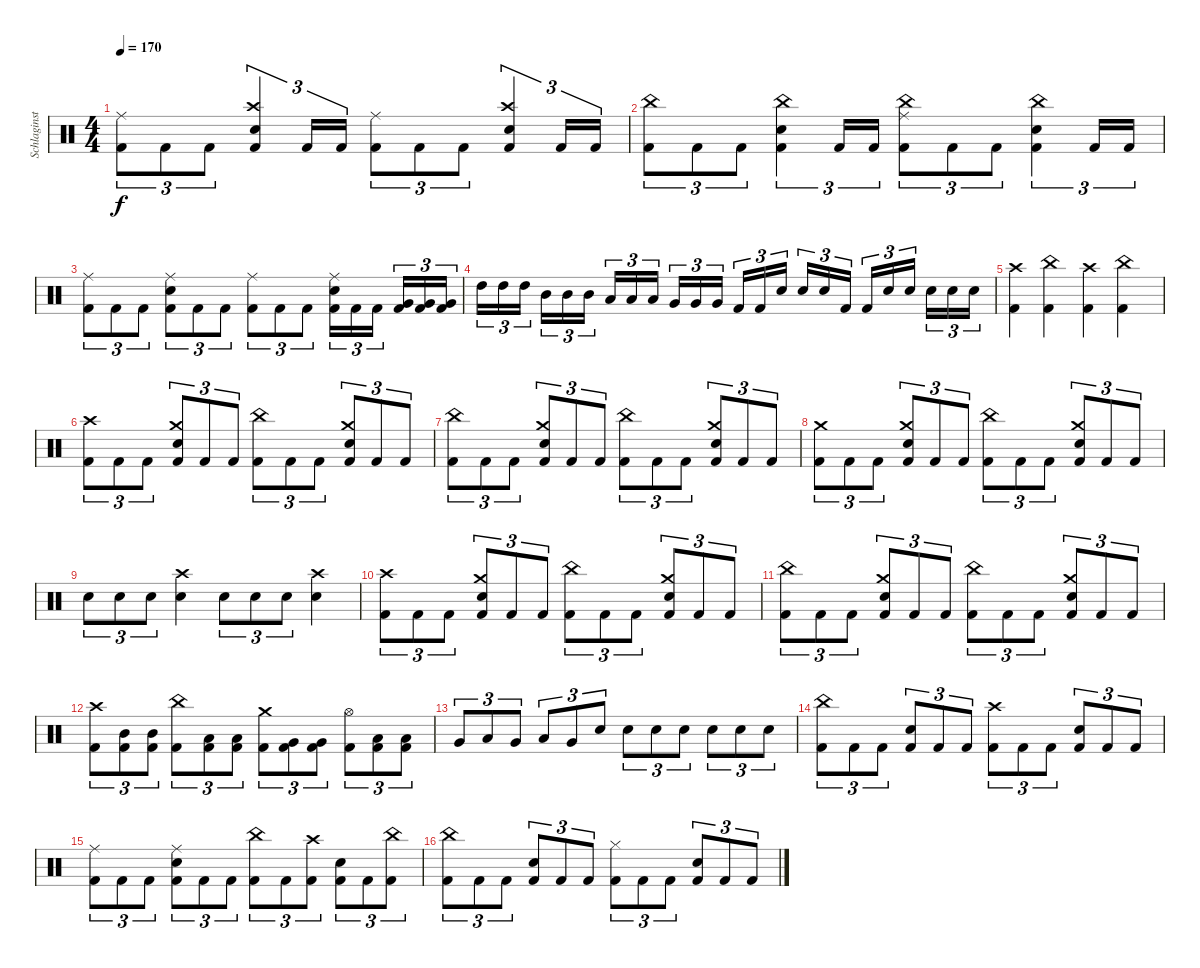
\track ("Schlaginstrumente - Auswahl" "Schlaginst") {instrument percussion}
\staff {score}
\articulation defaults
\ts (4 4)
\tempo 170
\clef neutral
\ks c
("Ride (middle)" "Kick (hit) 2").8{tu (3 2) dy f} "Kick (hit) 2".8{tu (3 2)} "Kick (hit) 2".8{tu (3 2)} ("Crash high (hit)" "Snare (hit) 2" "Kick (hit) 2").4{tu (3 2)} "Kick (hit) 2".16{tu (3 2)} "Kick (hit) 2".16{tu (3 2)} ("Ride (middle)" "Kick (hit) 2").8{tu (3 2)} "Kick (hit) 2".8{tu (3 2)} "Kick (hit) 2".8{tu (3 2)} ("Crash high (hit)" "Snare (hit) 2" "Kick (hit) 2").4{tu (3 2)} "Kick (hit) 2".16{tu (3 2)} "Kick (hit) 2".16{tu (3 2)} |
("China (hit)" "Kick (hit) 2").8{tu (3 2)} "Kick (hit) 2".8{tu (3 2)} "Kick (hit) 2".8{tu (3 2)} ("China (hit)" "Snare (hit) 2" "Kick (hit) 2").4{tu (3 2)} "Kick (hit) 2".16{tu (3 2)} "Kick (hit) 2".16{tu (3 2)} ("China (hit)" "Ride (middle)" "Kick (hit) 2").8{tu (3 2)} "Kick (hit) 2".8{tu (3 2)} "Kick (hit) 2".8{tu (3 2)} ("China (hit)" "Snare (hit) 2" "Kick (hit) 2").4{tu (3 2)} "Kick (hit) 2".16{tu (3 2)} "Kick (hit) 2".16{tu (3 2)} |
("Ride (middle)" "Kick (hit) 2").8{tu (3 2)} "Kick (hit) 2".8{tu (3 2)} "Kick (hit) 2".8{tu (3 2)} ("Ride (middle)" "Snare (hit) 2" "Kick (hit) 2").8{tu (3 2)} "Kick (hit) 2".8{tu (3 2)} "Kick (hit) 2".8{tu (3 2)} ("Ride (middle)" "Kick (hit) 2").8{tu (3 2)} "Kick (hit) 2".8{tu (3 2)} "Kick (hit) 2".8{tu (3 2)} ("Ride (middle)" "Snare (hit) 2" "Kick (hit) 2").16{tu (3 2)} "Kick (hit) 2".16{tu (3 2)} "Kick (hit) 2".16{tu (3 2) beam splitsecondary} ("Very Low Tom (hit)" "Kick (hit) 2").16{tu (3 2)} ("Very Low Tom (hit)" "Kick (hit) 2").16{tu (3 2)} ("Very Low Tom (hit)" "Kick (hit) 2").16{tu (3 2)} |
"High Tom (hit)".16{tu (3 2)} "High Tom (hit)".16{tu (3 2)} "High Tom (hit)".16{tu (3 2) beam splitsecondary} "Mid Tom (hit)".16{tu (3 2)} "Mid Tom (hit)".16{tu (3 2)} "Mid Tom (hit)".16{tu (3 2)} "Low Tom (hit)".16{tu (3 2)} "Low Tom (hit)".16{tu (3 2)} "Low Tom (hit)".16{tu (3 2) beam splitsecondary} "Very Low Tom (hit)".16{tu (3 2)} "Very Low Tom (hit)".16{tu (3 2)} "Very Low Tom (hit)".16{tu (3 2)} "Kick (hit) 2".16{tu (3 2)} "Kick (hit) 2".16{tu (3 2)} "Snare (hit) 2".16{tu (3 2) beam splitsecondary} "Snare (hit) 2".16{tu (3 2)} "Snare (hit) 2".16{tu (3 2)} "Kick (hit) 2".16{tu (3 2)} "Kick (hit) 2".16{tu (3 2)} "Snare (hit) 2".16{tu (3 2)} "Snare (hit) 2".16{tu (3 2) beam splitsecondary} "Snare (hit) 2".16{tu (3 2)} "Snare (hit) 2".16{tu (3 2)} "Snare (hit) 2".16{tu (3 2)} |
("Crash high (hit)" "Kick (hit) 2").4 ("China (hit)" "Kick (hit) 2").4 ("Crash high (hit)" "Kick (hit) 2").4 ("China (hit)" "Kick (hit) 2").4 |
("Crash high (hit)" "Kick (hit) 2").8{tu (3 2)} "Kick (hit) 2".8{tu (3 2)} "Kick (hit) 2".8{tu (3 2)} ("Crash medium (hit)" "Electric Snare (hit)" "Kick (hit) 2").8{tu (3 2)} "Kick (hit) 2".8{tu (3 2)} "Kick (hit) 2".8{tu (3 2)} ("China (hit)" "Kick (hit) 2").8{tu (3 2)} "Kick (hit) 2".8{tu (3 2)} "Kick (hit) 2".8{tu (3 2)} ("Crash medium (hit)" "Electric Snare (hit)" "Kick (hit) 2").8{tu (3 2)} "Kick (hit) 2".8{tu (3 2)} "Kick (hit) 2".8{tu (3 2)} |
("China (hit)" "Kick (hit) 2").8{tu (3 2)} "Kick (hit) 2".8{tu (3 2)} "Kick (hit) 2".8{tu (3 2)} ("Crash medium (hit)" "Electric Snare (hit)" "Kick (hit) 2").8{tu (3 2)} "Kick (hit) 2".8{tu (3 2)} "Kick (hit) 2".8{tu (3 2)} ("China (hit)" "Kick (hit) 2").8{tu (3 2)} "Kick (hit) 2".8{tu (3 2)} "Kick (hit) 2".8{tu (3 2)} ("Crash medium (hit)" "Electric Snare (hit)" "Kick (hit) 2").8{tu (3 2)} "Kick (hit) 2".8{tu (3 2)} "Kick (hit) 2".8{tu (3 2)} |
("Crash medium (hit)" "Kick (hit) 2").8{tu (3 2)} "Kick (hit) 2".8{tu (3 2)} "Kick (hit) 2".8{tu (3 2)} ("Crash medium (hit)" "Electric Snare (hit)" "Kick (hit) 2").8{tu (3 2)} "Kick (hit) 2".8{tu (3 2)} "Kick (hit) 2".8{tu (3 2)} ("China (hit)" "Kick (hit) 2").8{tu (3 2)} "Kick (hit) 2".8{tu (3 2)} "Kick (hit) 2".8{tu (3 2)} ("Crash medium (hit)" "Electric Snare (hit)" "Kick (hit) 2").8{tu (3 2)} "Kick (hit) 2".8{tu (3 2)} "Kick (hit) 2".8{tu (3 2)} |
"Electric Snare (hit)".8{tu (3 2)} "Electric Snare (hit)".8{tu (3 2)} "Electric Snare (hit)".8{tu (3 2)} ("Crash high (hit)" "Electric Snare (hit)").4 "Electric Snare (hit)".8{tu (3 2)} "Electric Snare (hit)".8{tu (3 2)} "Electric Snare (hit)".8{tu (3 2)} ("Crash high (hit)" "Electric Snare (hit)").4 |
("Crash high (hit)" "Kick (hit) 2").8{tu (3 2)} "Kick (hit) 2".8{tu (3 2)} "Kick (hit) 2".8{tu (3 2)} ("Crash medium (hit)" "Electric Snare (hit)" "Kick (hit) 2").8{tu (3 2)} "Kick (hit) 2".8{tu (3 2)} "Kick (hit) 2".8{tu (3 2)} ("China (hit)" "Kick (hit) 2").8{tu (3 2)} "Kick (hit) 2".8{tu (3 2)} "Kick (hit) 2".8{tu (3 2)} ("Crash medium (hit)" "Electric Snare (hit)" "Kick (hit) 2").8{tu (3 2)} "Kick (hit) 2".8{tu (3 2)} "Kick (hit) 2".8{tu (3 2)} |
("China (hit)" "Kick (hit) 2").8{tu (3 2)} "Kick (hit) 2".8{tu (3 2)} "Kick (hit) 2".8{tu (3 2)} ("Crash medium (hit)" "Electric Snare (hit)" "Kick (hit) 2").8{tu (3 2)} "Kick (hit) 2".8{tu (3 2)} "Kick (hit) 2".8{tu (3 2)} ("China (hit)" "Kick (hit) 2").8{tu (3 2)} "Kick (hit) 2".8{tu (3 2)} "Kick (hit) 2".8{tu (3 2)} ("Crash medium (hit)" "Electric Snare (hit)" "Kick (hit) 2").8{tu (3 2)} "Kick (hit) 2".8{tu (3 2)} "Kick (hit) 2".8{tu (3 2)} |
("Crash high (hit)" "Kick (hit) 2").8{tu (3 2)} ("Mid Tom (hit)" "Kick (hit) 2").8{tu (3 2)} ("Mid Tom (hit)" "Kick (hit) 2").8{tu (3 2)} ("China (hit)" "Kick (hit) 2").8{tu (3 2)} ("Low Tom (hit)" "Kick (hit) 2").8{tu (3 2)} ("Low Tom (hit)" "Kick (hit) 2").8{tu (3 2)} ("Crash medium (hit)" "Kick (hit) 2").8{tu (3 2)} ("Very Low Tom (hit)" "Kick (hit) 2").8{tu (3 2)} ("Very Low Tom (hit)" "Kick (hit) 2").8{tu (3 2)} ("Hi-Hat (open)" "Kick (hit) 2").8{tu (3 2)} ("Low Floor Tom (hit)" "Kick (hit) 2").8{tu (3 2)} ("Low Floor Tom (hit)" "Kick (hit) 2").8{tu (3 2)} |
"Very Low Tom (hit)".8{tu (3 2)} "Low Tom (hit)".8{tu (3 2)} "Very Low Tom (hit)".8{tu (3 2)} "Low Tom (hit)".8{tu (3 2)} "Very Low Tom (hit)".8{tu (3 2)} "Electric Snare (hit)".8{tu (3 2)} "Electric Snare (hit)".8{tu (3 2)} "Electric Snare (hit)".8{tu (3 2)} "Electric Snare (hit)".8{tu (3 2)} "Electric Snare (hit)".8{tu (3 2)} "Electric Snare (hit)".8{tu (3 2)} "Electric Snare (hit)".8{tu (3 2)} |
("Kick (hit) 2" "China (hit)").8{tu (3 2)} "Kick (hit) 2".8{tu (3 2)} "Kick (hit) 2".8{tu (3 2)} ("Kick (hit) 2" "Snare (hit) 2").8{tu (3 2)} "Kick (hit) 2".8{tu (3 2)} "Kick (hit) 2".8{tu (3 2)} ("Kick (hit) 2" "Crash high (hit)").8{tu (3 2)} "Kick (hit) 2".8{tu (3 2)} "Kick (hit) 2".8{tu (3 2)} ("Kick (hit) 2" "Snare (hit) 2").8{tu (3 2)} "Kick (hit) 2".8{tu (3 2)} "Kick (hit) 2".8{tu (3 2)} |
("Kick (hit) 2" "Ride (middle)").8{tu (3 2)} "Kick (hit) 2".8{tu (3 2)} "Kick (hit) 2".8{tu (3 2)} ("Kick (hit) 2" "Ride (middle)" "Snare (hit) 2").8{tu (3 2)} "Kick (hit) 2".8{tu (3 2)} "Kick (hit) 2".8{tu (3 2)} ("Kick (hit) 2" "China (hit)").8{tu (3 2)} "Kick (hit) 2".8{tu (3 2)} ("Kick (hit) 2" "Crash high (hit)").8{tu (3 2)} ("Kick (hit) 2" "Snare (hit) 2").8{tu (3 2)} "Kick (hit) 2".8{tu (3 2)} ("Kick (hit) 2" "China (hit)").8{tu (3 2)} |
("Kick (hit) 2" "China (hit)").8{tu (3 2)} "Kick (hit) 2".8{tu (3 2)} "Kick (hit) 2".8{tu (3 2)} ("Kick (hit) 2" "Snare (hit) 2").8{tu (3 2)} "Kick (hit) 2".8{tu (3 2)} "Kick (hit) 2".8{tu (3 2)} ("Kick (hit) 2" "Hi-Hat (closed)").8{tu (3 2)} "Kick (hit) 2".8{tu (3 2)} "Kick (hit) 2".8{tu (3 2)} ("Kick (hit) 2" "Snare (hit) 2").8{tu (3 2)} "Kick (hit) 2".8{tu (3 2)} "Kick (hit) 2".8{tu (3 2)}
